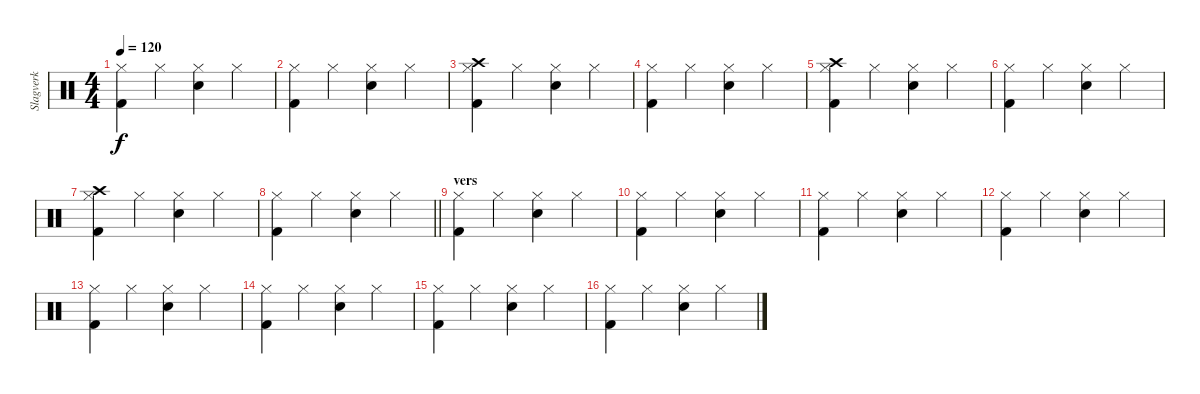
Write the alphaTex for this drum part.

\track ("Slagverk" "Slagverk") {instrument percussion}
\staff {score}
\articulation defaults
\ts (4 4)
\tempo 120
\clef neutral
\ks c
("Hi-Hat (closed)" "Kick (hit) 2").4{dy f} "Hi-Hat (closed)".4 ("Hi-Hat (closed)" "Snare (hit) 2").4 "Hi-Hat (closed)".4 |
("Hi-Hat (closed)" "Kick (hit) 2").4 "Hi-Hat (closed)".4 ("Hi-Hat (closed)" "Snare (hit) 2").4 "Hi-Hat (closed)".4 |
("Hi-Hat (closed)" "Kick (hit) 2" "Crash high (hit)").4 "Hi-Hat (closed)".4 ("Hi-Hat (closed)" "Snare (hit) 2").4 "Hi-Hat (closed)".4 |
("Hi-Hat (closed)" "Kick (hit) 2").4 "Hi-Hat (closed)".4 ("Hi-Hat (closed)" "Snare (hit) 2").4 "Hi-Hat (closed)".4 |
("Hi-Hat (closed)" "Kick (hit) 2" "Crash high (hit)").4 "Hi-Hat (closed)".4 ("Hi-Hat (closed)" "Snare (hit) 2").4 "Hi-Hat (closed)".4 |
("Hi-Hat (closed)" "Kick (hit) 2").4 "Hi-Hat (closed)".4 ("Hi-Hat (closed)" "Snare (hit) 2").4 "Hi-Hat (closed)".4 |
("Hi-Hat (closed)" "Kick (hit) 2" "Crash high (hit)").4 "Hi-Hat (closed)".4 ("Hi-Hat (closed)" "Snare (hit) 2").4 "Hi-Hat (closed)".4 |
\barLineRight lightlight
("Hi-Hat (closed)" "Kick (hit) 2").4 "Hi-Hat (closed)".4 ("Hi-Hat (closed)" "Snare (hit) 2").4 "Hi-Hat (closed)".4 |
\section ("" "vers")
("Hi-Hat (closed)" "Kick (hit) 2").4 "Hi-Hat (closed)".4 ("Hi-Hat (closed)" "Snare (hit) 2").4 "Hi-Hat (closed)".4 |
("Hi-Hat (closed)" "Kick (hit) 2").4 "Hi-Hat (closed)".4 ("Hi-Hat (closed)" "Snare (hit) 2").4 "Hi-Hat (closed)".4 |
("Hi-Hat (closed)" "Kick (hit) 2").4 "Hi-Hat (closed)".4 ("Hi-Hat (closed)" "Snare (hit) 2").4 "Hi-Hat (closed)".4 |
("Hi-Hat (closed)" "Kick (hit) 2").4 "Hi-Hat (closed)".4 ("Hi-Hat (closed)" "Snare (hit) 2").4 "Hi-Hat (closed)".4 |
("Hi-Hat (closed)" "Kick (hit) 2").4 "Hi-Hat (closed)".4 ("Hi-Hat (closed)" "Snare (hit) 2").4 "Hi-Hat (closed)".4 |
("Hi-Hat (closed)" "Kick (hit) 2").4 "Hi-Hat (closed)".4 ("Hi-Hat (closed)" "Snare (hit) 2").4 "Hi-Hat (closed)".4 |
("Hi-Hat (closed)" "Kick (hit) 2").4 "Hi-Hat (closed)".4 ("Hi-Hat (closed)" "Snare (hit) 2").4 "Hi-Hat (closed)".4 |
("Hi-Hat (closed)" "Kick (hit) 2").4 "Hi-Hat (closed)".4 ("Hi-Hat (closed)" "Snare (hit) 2").4 "Hi-Hat (closed)".4
